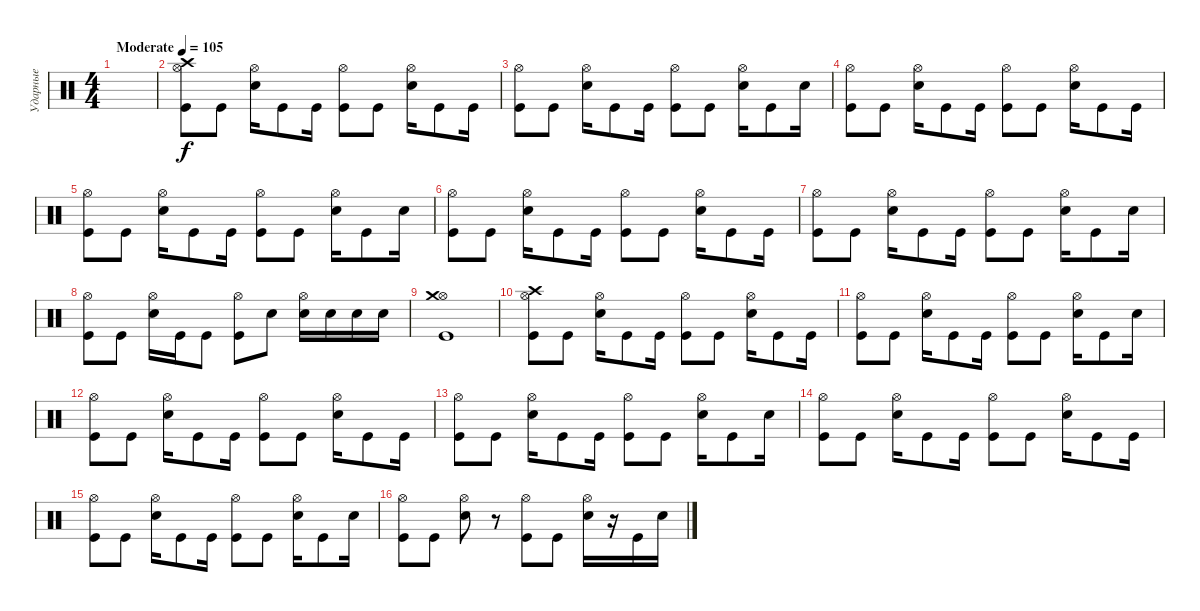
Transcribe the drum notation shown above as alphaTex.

\track ("Ударные" "Ударные") {instrument percussion}
\staff {score}
\articulation defaults
\ts (4 4)
\tempo (105 "Moderate")
\clef neutral
\ks c
|
("Crash high (hit)" "Kick (hit)" "Hi-Hat (open)").8 "Kick (hit)".8 ("Electric Snare (hit)" "Hi-Hat (open)").16 "Kick (hit)".8 "Kick (hit)".16 ("Kick (hit)" "Hi-Hat (open)").8 "Kick (hit)".8 ("Electric Snare (hit)" "Hi-Hat (open)").16 "Kick (hit)".8 "Kick (hit)".16 |
("Kick (hit)" "Hi-Hat (open)").8 "Kick (hit)".8 ("Electric Snare (hit)" "Hi-Hat (open)").16 "Kick (hit)".8 "Kick (hit)".16 ("Kick (hit)" "Hi-Hat (open)").8 "Kick (hit)".8 ("Electric Snare (hit)" "Hi-Hat (open)").16 "Kick (hit)".8 "Electric Snare (hit)".16 |
("Kick (hit)" "Hi-Hat (open)").8 "Kick (hit)".8 ("Electric Snare (hit)" "Hi-Hat (open)").16 "Kick (hit)".8 "Kick (hit)".16 ("Kick (hit)" "Hi-Hat (open)").8 "Kick (hit)".8 ("Electric Snare (hit)" "Hi-Hat (open)").16 "Kick (hit)".8 "Kick (hit)".16 |
("Kick (hit)" "Hi-Hat (open)").8 "Kick (hit)".8 ("Electric Snare (hit)" "Hi-Hat (open)").16 "Kick (hit)".8 "Kick (hit)".16 ("Kick (hit)" "Hi-Hat (open)").8 "Kick (hit)".8 ("Electric Snare (hit)" "Hi-Hat (open)").16 "Kick (hit)".8 "Electric Snare (hit)".16 |
("Kick (hit)" "Hi-Hat (open)").8 "Kick (hit)".8 ("Electric Snare (hit)" "Hi-Hat (open)").16 "Kick (hit)".8 "Kick (hit)".16 ("Kick (hit)" "Hi-Hat (open)").8 "Kick (hit)".8 ("Electric Snare (hit)" "Hi-Hat (open)").16 "Kick (hit)".8 "Kick (hit)".16 |
("Kick (hit)" "Hi-Hat (open)").8 "Kick (hit)".8 ("Electric Snare (hit)" "Hi-Hat (open)").16 "Kick (hit)".8 "Kick (hit)".16 ("Kick (hit)" "Hi-Hat (open)").8 "Kick (hit)".8 ("Electric Snare (hit)" "Hi-Hat (open)").16 "Kick (hit)".8 "Electric Snare (hit)".16 |
("Kick (hit)" "Hi-Hat (open)").8 "Kick (hit)".8 ("Electric Snare (hit)" "Hi-Hat (open)").16 "Kick (hit)".16 "Kick (hit)".8 ("Kick (hit)" "Hi-Hat (open)").8 "Electric Snare (hit)".8 ("Electric Snare (hit)" "Hi-Hat (open)").16 "Electric Snare (hit)".16 "Electric Snare (hit)".16 "Electric Snare (hit)".16 |
("Kick (hit)" "Hi-Hat (open)" "Crash medium (hit)").1 |
("Crash high (hit)" "Kick (hit)" "Hi-Hat (open)").8 "Kick (hit)".8 ("Electric Snare (hit)" "Hi-Hat (open)").16 "Kick (hit)".8 "Kick (hit)".16 ("Kick (hit)" "Hi-Hat (open)").8 "Kick (hit)".8 ("Electric Snare (hit)" "Hi-Hat (open)").16 "Kick (hit)".8 "Kick (hit)".16 |
("Kick (hit)" "Hi-Hat (open)").8 "Kick (hit)".8 ("Electric Snare (hit)" "Hi-Hat (open)").16 "Kick (hit)".8 "Kick (hit)".16 ("Kick (hit)" "Hi-Hat (open)").8 "Kick (hit)".8 ("Electric Snare (hit)" "Hi-Hat (open)").16 "Kick (hit)".8 "Electric Snare (hit)".16 |
("Kick (hit)" "Hi-Hat (open)").8 "Kick (hit)".8 ("Electric Snare (hit)" "Hi-Hat (open)").16 "Kick (hit)".8 "Kick (hit)".16 ("Kick (hit)" "Hi-Hat (open)").8 "Kick (hit)".8 ("Electric Snare (hit)" "Hi-Hat (open)").16 "Kick (hit)".8 "Kick (hit)".16 |
("Kick (hit)" "Hi-Hat (open)").8 "Kick (hit)".8 ("Electric Snare (hit)" "Hi-Hat (open)").16 "Kick (hit)".8 "Kick (hit)".16 ("Kick (hit)" "Hi-Hat (open)").8 "Kick (hit)".8 ("Electric Snare (hit)" "Hi-Hat (open)").16 "Kick (hit)".8 "Electric Snare (hit)".16 |
("Kick (hit)" "Hi-Hat (open)").8 "Kick (hit)".8 ("Electric Snare (hit)" "Hi-Hat (open)").16 "Kick (hit)".8 "Kick (hit)".16 ("Kick (hit)" "Hi-Hat (open)").8 "Kick (hit)".8 ("Electric Snare (hit)" "Hi-Hat (open)").16 "Kick (hit)".8 "Kick (hit)".16 |
("Kick (hit)" "Hi-Hat (open)").8 "Kick (hit)".8 ("Electric Snare (hit)" "Hi-Hat (open)").16 "Kick (hit)".8 "Kick (hit)".16 ("Kick (hit)" "Hi-Hat (open)").8 "Kick (hit)".8 ("Electric Snare (hit)" "Hi-Hat (open)").16 "Kick (hit)".8 "Electric Snare (hit)".16 |
("Kick (hit)" "Hi-Hat (open)").8 "Kick (hit)".8 ("Electric Snare (hit)" "Hi-Hat (open)").8 r.8 ("Kick (hit)" "Hi-Hat (open)").8 "Kick (hit)".8 ("Electric Snare (hit)" "Hi-Hat (open)").16 r.16 "Kick (hit)".16 "Electric Snare (hit)".16
